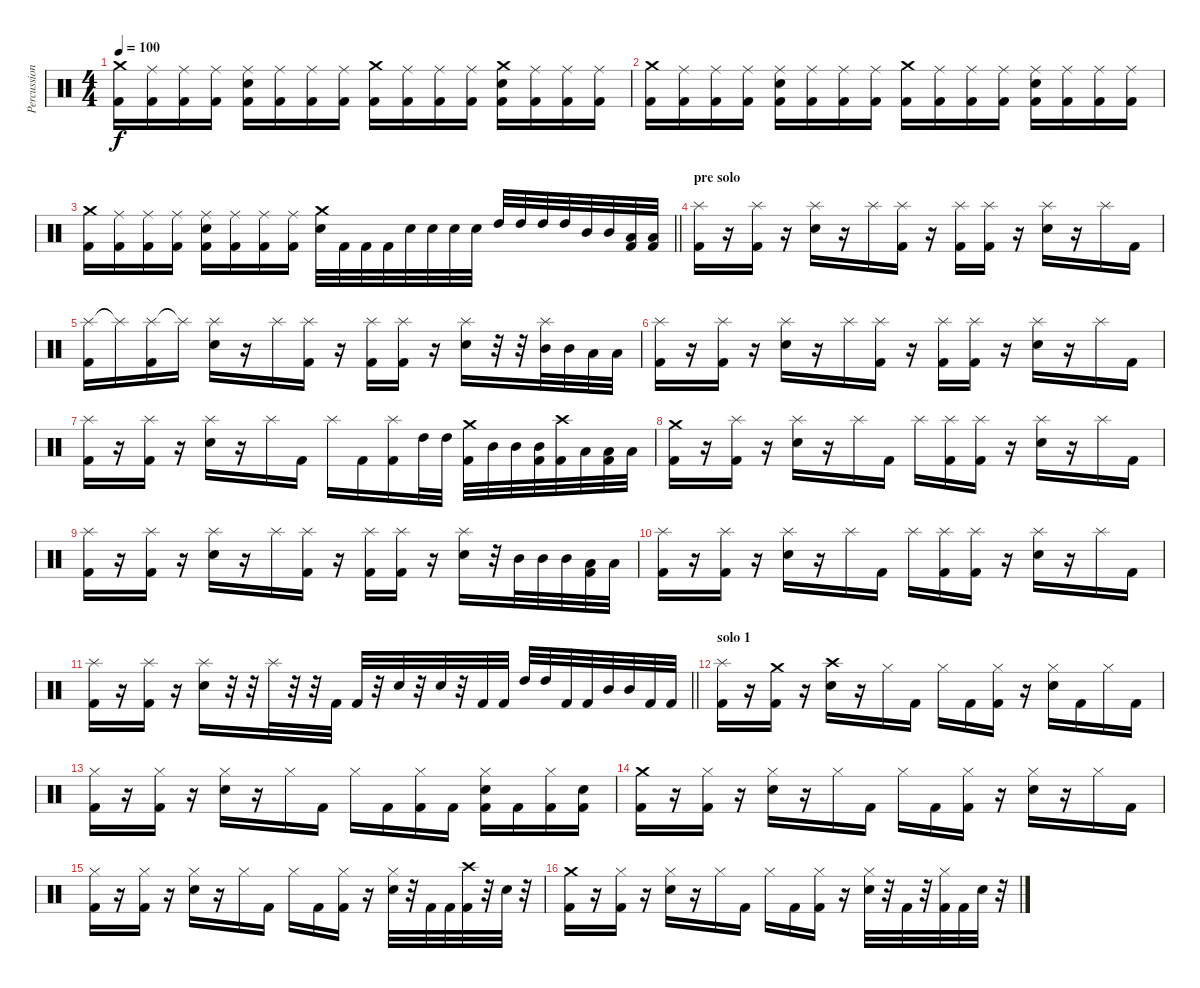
\track ("Percussion" "Percussion") {instrument percussion}
\staff {score}
\articulation defaults
\ts (4 4)
\tempo 100
\clef neutral
\ks c
("Crash medium (hit)" "Kick (hit) 2").16{dy f} ("Ride (middle)" "Kick (hit) 2").16 ("Ride (middle)" "Kick (hit) 2").16 ("Ride (middle)" "Kick (hit) 2").16 ("Ride (middle)" "Electric Snare (hit)" "Kick (hit) 2").16 ("Ride (middle)" "Kick (hit) 2").16 ("Ride (middle)" "Kick (hit) 2").16 ("Ride (middle)" "Kick (hit) 2").16 ("Crash medium (hit)" "Kick (hit) 2").16 ("Ride (middle)" "Kick (hit) 2").16 ("Ride (middle)" "Kick (hit) 2").16 ("Ride (middle)" "Kick (hit) 2").16 ("Crash medium (hit)" "Electric Snare (hit)" "Kick (hit) 2").16 ("Ride (middle)" "Kick (hit) 2").16 ("Ride (middle)" "Kick (hit) 2").16 ("Ride (middle)" "Kick (hit) 2").16 |
("Crash medium (hit)" "Kick (hit) 2").16 ("Ride (middle)" "Kick (hit) 2").16 ("Ride (middle)" "Kick (hit) 2").16 ("Ride (middle)" "Kick (hit) 2").16 ("Ride (middle)" "Electric Snare (hit)" "Kick (hit) 2").16 ("Ride (middle)" "Kick (hit) 2").16 ("Ride (middle)" "Kick (hit) 2").16 ("Ride (middle)" "Kick (hit) 2").16 ("Crash medium (hit)" "Kick (hit) 2").16 ("Ride (middle)" "Kick (hit) 2").16 ("Ride (middle)" "Kick (hit) 2").16 ("Ride (middle)" "Kick (hit) 2").16 ("Ride (middle)" "Electric Snare (hit)" "Kick (hit) 2").16 ("Ride (middle)" "Kick (hit) 2").16 ("Ride (middle)" "Kick (hit) 2").16 ("Ride (middle)" "Kick (hit) 2").16 |
\barLineRight lightlight
("Crash medium (hit)" "Kick (hit) 2").16 ("Ride (middle)" "Kick (hit) 2").16 ("Ride (middle)" "Kick (hit) 2").16 ("Ride (middle)" "Kick (hit) 2").16 ("Ride (middle)" "Electric Snare (hit)" "Kick (hit) 2").16 ("Ride (middle)" "Kick (hit) 2").16 ("Ride (middle)" "Kick (hit) 2").16 ("Ride (middle)" "Kick (hit) 2").16 ("Crash medium (hit)" "Electric Snare (hit)").32 "Kick (hit) 2".32 "Kick (hit) 2".32 "Kick (hit) 2".32 "Electric Snare (hit)".32 "Electric Snare (hit)".32 "Electric Snare (hit)".32 "Electric Snare (hit)".32 "High Tom (hit)".32 "High Tom (hit)".32 "High Tom (hit)".32 "High Tom (hit)".32 "Mid Tom (hit)".32 "Mid Tom (hit)".32 ("Low Tom (hit)" "Kick (hit) 2").32 ("Low Tom (hit)" "Kick (hit) 2").32 |
\section ("" "pre solo")
("Splash (hit)" "Kick (hit) 2").16 r.16 ("Splash (hit)" "Kick (hit) 2").16 r.16 ("Splash (hit)" "Electric Snare (hit)").16 r.16 "Splash (hit)".16 ("Splash (hit)" "Kick (hit) 2").16 r.16 ("Splash (hit)" "Kick (hit) 2").16 ("Splash (hit)" "Kick (hit) 2").16 r.16 ("Splash (hit)" "Electric Snare (hit)").16 r.16 "Splash (hit)".16 "Kick (hit) 2".16 |
("Splash (hit)" "Kick (hit) 2").16 "Splash (hit)"{t}.16 ("Splash (hit)" "Kick (hit) 2").16 "Splash (hit)"{t}.16 ("Splash (hit)" "Electric Snare (hit)").16 r.16 "Splash (hit)".16 ("Splash (hit)" "Kick (hit) 2").16 r.16 ("Splash (hit)" "Kick (hit) 2").16 ("Splash (hit)" "Kick (hit) 2").16 r.16 ("Splash (hit)" "Electric Snare (hit)").16 r.32 r.32 ("Splash (hit)" "Mid Tom (hit)").32 "Mid Tom (hit)".32 "Low Tom (hit)".32 "Low Tom (hit)".32 |
("Splash (hit)" "Kick (hit) 2").16 r.16 ("Splash (hit)" "Kick (hit) 2").16 r.16 ("Splash (hit)" "Electric Snare (hit)").16 r.16 "Splash (hit)".16 ("Splash (hit)" "Kick (hit) 2").16 r.16 ("Splash (hit)" "Kick (hit) 2").16 ("Splash (hit)" "Kick (hit) 2").16 r.16 ("Splash (hit)" "Electric Snare (hit)").16 r.16 "Splash (hit)".16 "Kick (hit) 2".16 |
("Splash (hit)" "Kick (hit) 2").16 r.16 ("Splash (hit)" "Kick (hit) 2").16 r.16 ("Splash (hit)" "Electric Snare (hit)").16 r.16 "Splash (hit)".16 "Kick (hit) 2".16 "Splash (hit)".16 "Kick (hit) 2".16 ("Splash (hit)" "Kick (hit) 2").16 "High Tom (hit)".32 "High Tom (hit)".32 ("Crash medium (hit)" "Kick (hit) 2").32 "Mid Tom (hit)".32 "Mid Tom (hit)".32 ("Mid Tom (hit)" "Kick (hit) 2").32 ("Crash high (hit)" "Kick (hit) 2").32 "Low Tom (hit)".32 ("Low Tom (hit)" "Kick (hit) 2").32 "Low Tom (hit)".32 |
("Crash medium (hit)" "Kick (hit) 2").16 r.16 ("Splash (hit)" "Kick (hit) 2").16 r.16 ("Splash (hit)" "Electric Snare (hit)").16 r.16 "Splash (hit)".16 "Kick (hit) 2".16 "Splash (hit)".16 ("Splash (hit)" "Kick (hit) 2").16 ("Splash (hit)" "Kick (hit) 2").16 r.16 ("Splash (hit)" "Electric Snare (hit)").16 r.16 "Splash (hit)".16 "Kick (hit) 2".16 |
("Splash (hit)" "Kick (hit) 2").16 r.16 ("Splash (hit)" "Kick (hit) 2").16 r.16 ("Splash (hit)" "Electric Snare (hit)").16 r.16 "Splash (hit)".16 ("Splash (hit)" "Kick (hit) 2").16 r.16 ("Splash (hit)" "Kick (hit) 2").16 ("Splash (hit)" "Kick (hit) 2").16 r.16 ("Splash (hit)" "Electric Snare (hit)").16 r.32 "Mid Tom (hit)".32 "Mid Tom (hit)".32 "Mid Tom (hit)".32 ("Low Tom (hit)" "Kick (hit) 2").32 "Low Tom (hit)".32 |
("Splash (hit)" "Kick (hit) 2").16 r.16 ("Splash (hit)" "Kick (hit) 2").16 r.16 ("Splash (hit)" "Electric Snare (hit)").16 r.16 "Splash (hit)".16 "Kick (hit) 2".16 "Splash (hit)".16 ("Splash (hit)" "Kick (hit) 2").16 ("Splash (hit)" "Kick (hit) 2").16 r.16 ("Splash (hit)" "Electric Snare (hit)").16 r.16 "Splash (hit)".16 "Kick (hit) 2".16 |
\barLineRight lightlight
("Splash (hit)" "Kick (hit) 2").16 r.16 ("Splash (hit)" "Kick (hit) 2").16 r.16 ("Splash (hit)" "Electric Snare (hit)").16 r.32 r.32 "Splash (hit)".32 r.32 r.32 "Kick (hit) 2".32 "Kick (hit) 2".32 r.32 "Electric Snare (hit)".32 r.32 "Electric Snare (hit)".32 r.32 "Kick (hit) 2".32 "Kick (hit) 2".32 "High Tom (hit)".32 "High Tom (hit)".32 "Kick (hit) 2".32 "Kick (hit) 2".32 "Mid Tom (hit)".32 "Mid Tom (hit)".32 "Kick (hit) 2".32 "Kick (hit) 2".32 |
\section ("" "solo 1")
("Splash (hit)" "Kick (hit) 2").16 r.16 ("Crash medium (hit)" "Kick (hit) 2").16 r.16 ("Crash high (hit)" "Electric Snare (hit)").16 r.16 "Hi-Hat (closed)".16 "Kick (hit) 2".16 "Hi-Hat (closed)".16 "Kick (hit) 2".16 ("Hi-Hat (closed)" "Kick (hit) 2").16 r.16 ("Hi-Hat (closed)" "Electric Snare (hit)").16 "Kick (hit) 2".16 "Hi-Hat (closed)".16 "Kick (hit) 2".16 |
("Hi-Hat (closed)" "Kick (hit) 2").16 r.16 ("Hi-Hat (closed)" "Kick (hit) 2").16 r.16 ("Hi-Hat (closed)" "Electric Snare (hit)").16 r.16 "Hi-Hat (closed)".16 "Kick (hit) 2".16 "Hi-Hat (closed)".16 "Kick (hit) 2".16 ("Hi-Hat (closed)" "Kick (hit) 2").16 "Kick (hit) 2".16 ("Hi-Hat (closed)" "Electric Snare (hit)" "Kick (hit) 2").16 "Kick (hit) 2".16 ("Hi-Hat (closed)" "Kick (hit) 2").16 ("Electric Snare (hit)" "Kick (hit) 2").16 |
("Crash medium (hit)" "Kick (hit) 2").16 r.16 ("Hi-Hat (closed)" "Kick (hit) 2").16 r.16 ("Hi-Hat (closed)" "Electric Snare (hit)").16 r.16 "Hi-Hat (closed)".16 "Kick (hit) 2".16 "Hi-Hat (closed)".16 "Kick (hit) 2".16 ("Hi-Hat (closed)" "Kick (hit) 2").16 r.16 ("Hi-Hat (closed)" "Electric Snare (hit)").16 r.16 "Hi-Hat (closed)".16 "Kick (hit) 2".16 |
("Hi-Hat (closed)" "Kick (hit) 2").16 r.16 ("Hi-Hat (closed)" "Kick (hit) 2").16 r.16 ("Hi-Hat (closed)" "Electric Snare (hit)").16 r.16 "Hi-Hat (closed)".16 "Kick (hit) 2".16 "Hi-Hat (closed)".16 "Kick (hit) 2".16 ("Hi-Hat (closed)" "Kick (hit) 2").16 r.16 ("Hi-Hat (closed)" "Electric Snare (hit)").32 r.32 "Kick (hit) 2".32 "Kick (hit) 2".32 ("Crash high (hit)" "Kick (hit) 2").32 r.32 "Electric Snare (hit)".32 r.32 |
("Crash medium (hit)" "Kick (hit) 2").16 r.16 ("Hi-Hat (closed)" "Kick (hit) 2").16 r.16 ("Hi-Hat (closed)" "Electric Snare (hit)").16 r.16 "Hi-Hat (closed)".16 "Kick (hit) 2".16 "Hi-Hat (closed)".16 "Kick (hit) 2".16 ("Hi-Hat (closed)" "Kick (hit) 2").16 r.16 ("Hi-Hat (closed)" "Electric Snare (hit)").32 r.32 "Kick (hit) 2".32 r.32 ("Hi-Hat (closed)" "Kick (hit) 2").32 "Kick (hit) 2".32 "Electric Snare (hit)".32 r.32
